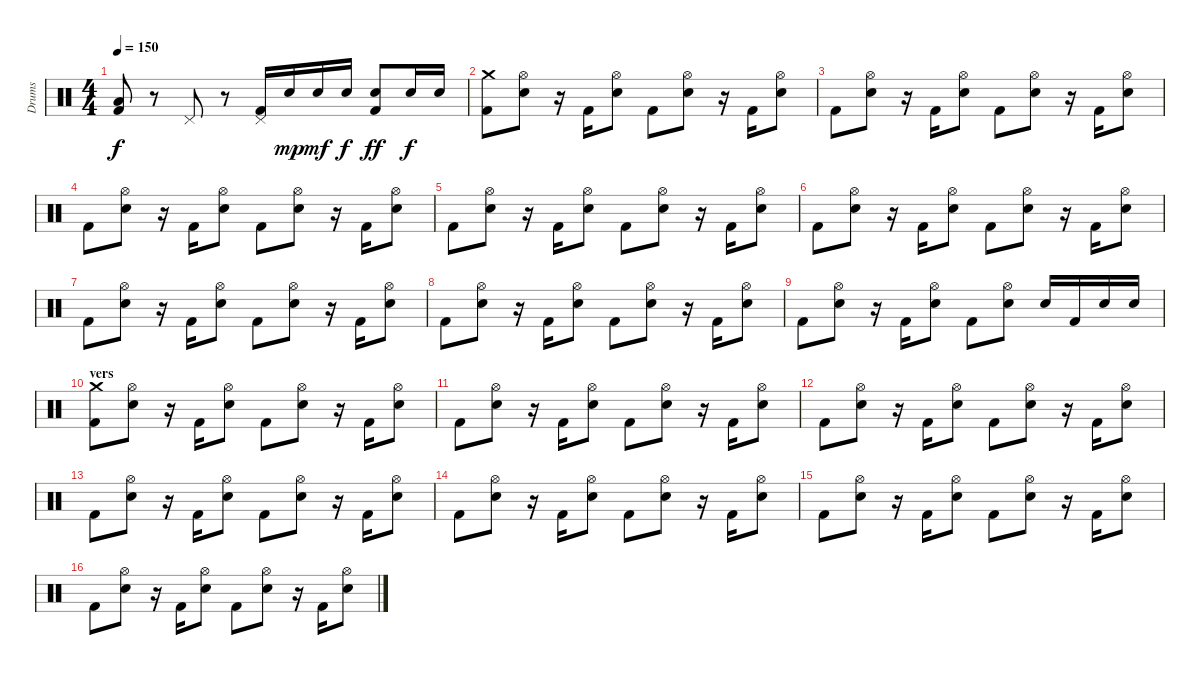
\track ("Drums" "Drums") {instrument percussion}
\staff {score}
\articulation defaults
\ts (4 4)
\tempo 150
\clef neutral
\ks c
("Low Floor Tom (hit)" "Kick (hit) 2").8{dy f} r.8 "Pedal Hi-Hat (hit)".8 r.8 ("Pedal Hi-Hat (hit)" "Kick (hit) 2").16 "Electric Snare (hit)".16{dy mp} "Electric Snare (hit)".16{dy mf} "Electric Snare (hit)".16{dy f} ("Electric Snare (hit)" "Kick (hit) 2").8{dy ff} "Electric Snare (hit)".16{dy f} "Electric Snare (hit)".16 |
("Crash medium (hit)" "Kick (hit) 2").8 ("Hi-Hat (open)" "Electric Snare (hit)").8 r.16 "Kick (hit) 2".16 ("Hi-Hat (open)" "Electric Snare (hit)").8 "Kick (hit) 2".8 ("Hi-Hat (open)" "Electric Snare (hit)").8 r.16 "Kick (hit) 2".16 ("Hi-Hat (open)" "Electric Snare (hit)").8 |
"Kick (hit) 2".8 ("Hi-Hat (open)" "Electric Snare (hit)").8 r.16 "Kick (hit) 2".16 ("Hi-Hat (open)" "Electric Snare (hit)").8 "Kick (hit) 2".8 ("Hi-Hat (open)" "Electric Snare (hit)").8 r.16 "Kick (hit) 2".16 ("Hi-Hat (open)" "Electric Snare (hit)").8 |
"Kick (hit) 2".8 ("Hi-Hat (open)" "Electric Snare (hit)").8 r.16 "Kick (hit) 2".16 ("Hi-Hat (open)" "Electric Snare (hit)").8 "Kick (hit) 2".8 ("Hi-Hat (open)" "Electric Snare (hit)").8 r.16 "Kick (hit) 2".16 ("Hi-Hat (open)" "Electric Snare (hit)").8 |
"Kick (hit) 2".8 ("Hi-Hat (open)" "Electric Snare (hit)").8 r.16 "Kick (hit) 2".16 ("Hi-Hat (open)" "Electric Snare (hit)").8 "Kick (hit) 2".8 ("Hi-Hat (open)" "Electric Snare (hit)").8 r.16 "Kick (hit) 2".16 ("Hi-Hat (open)" "Electric Snare (hit)").8 |
"Kick (hit) 2".8 ("Hi-Hat (open)" "Electric Snare (hit)").8 r.16 "Kick (hit) 2".16 ("Hi-Hat (open)" "Electric Snare (hit)").8 "Kick (hit) 2".8 ("Hi-Hat (open)" "Electric Snare (hit)").8 r.16 "Kick (hit) 2".16 ("Hi-Hat (open)" "Electric Snare (hit)").8 |
"Kick (hit) 2".8 ("Hi-Hat (open)" "Electric Snare (hit)").8 r.16 "Kick (hit) 2".16 ("Hi-Hat (open)" "Electric Snare (hit)").8 "Kick (hit) 2".8 ("Hi-Hat (open)" "Electric Snare (hit)").8 r.16 "Kick (hit) 2".16 ("Hi-Hat (open)" "Electric Snare (hit)").8 |
"Kick (hit) 2".8 ("Hi-Hat (open)" "Electric Snare (hit)").8 r.16 "Kick (hit) 2".16 ("Hi-Hat (open)" "Electric Snare (hit)").8 "Kick (hit) 2".8 ("Hi-Hat (open)" "Electric Snare (hit)").8 r.16 "Kick (hit) 2".16 ("Hi-Hat (open)" "Electric Snare (hit)").8 |
"Kick (hit) 2".8 ("Hi-Hat (open)" "Electric Snare (hit)").8 r.16 "Kick (hit) 2".16 ("Hi-Hat (open)" "Electric Snare (hit)").8 "Kick (hit) 2".8 ("Hi-Hat (open)" "Electric Snare (hit)").8 "Electric Snare (hit)".16 "Kick (hit) 2".16 "Electric Snare (hit)".16 "Electric Snare (hit)".16 |
\section ("" "vers")
("Crash medium (hit)" "Kick (hit) 2").8 ("Hi-Hat (open)" "Electric Snare (hit)").8 r.16 "Kick (hit) 2".16 ("Hi-Hat (open)" "Electric Snare (hit)").8 "Kick (hit) 2".8 ("Hi-Hat (open)" "Electric Snare (hit)").8 r.16 "Kick (hit) 2".16 ("Hi-Hat (open)" "Electric Snare (hit)").8 |
"Kick (hit) 2".8 ("Hi-Hat (open)" "Electric Snare (hit)").8 r.16 "Kick (hit) 2".16 ("Hi-Hat (open)" "Electric Snare (hit)").8 "Kick (hit) 2".8 ("Hi-Hat (open)" "Electric Snare (hit)").8 r.16 "Kick (hit) 2".16 ("Hi-Hat (open)" "Electric Snare (hit)").8 |
"Kick (hit) 2".8 ("Hi-Hat (open)" "Electric Snare (hit)").8 r.16 "Kick (hit) 2".16 ("Hi-Hat (open)" "Electric Snare (hit)").8 "Kick (hit) 2".8 ("Hi-Hat (open)" "Electric Snare (hit)").8 r.16 "Kick (hit) 2".16 ("Hi-Hat (open)" "Electric Snare (hit)").8 |
"Kick (hit) 2".8 ("Hi-Hat (open)" "Electric Snare (hit)").8 r.16 "Kick (hit) 2".16 ("Hi-Hat (open)" "Electric Snare (hit)").8 "Kick (hit) 2".8 ("Hi-Hat (open)" "Electric Snare (hit)").8 r.16 "Kick (hit) 2".16 ("Hi-Hat (open)" "Electric Snare (hit)").8 |
"Kick (hit) 2".8 ("Hi-Hat (open)" "Electric Snare (hit)").8 r.16 "Kick (hit) 2".16 ("Hi-Hat (open)" "Electric Snare (hit)").8 "Kick (hit) 2".8 ("Hi-Hat (open)" "Electric Snare (hit)").8 r.16 "Kick (hit) 2".16 ("Hi-Hat (open)" "Electric Snare (hit)").8 |
"Kick (hit) 2".8 ("Hi-Hat (open)" "Electric Snare (hit)").8 r.16 "Kick (hit) 2".16 ("Hi-Hat (open)" "Electric Snare (hit)").8 "Kick (hit) 2".8 ("Hi-Hat (open)" "Electric Snare (hit)").8 r.16 "Kick (hit) 2".16 ("Hi-Hat (open)" "Electric Snare (hit)").8 |
"Kick (hit) 2".8 ("Hi-Hat (open)" "Electric Snare (hit)").8 r.16 "Kick (hit) 2".16 ("Hi-Hat (open)" "Electric Snare (hit)").8 "Kick (hit) 2".8 ("Hi-Hat (open)" "Electric Snare (hit)").8 r.16 "Kick (hit) 2".16 ("Hi-Hat (open)" "Electric Snare (hit)").8
